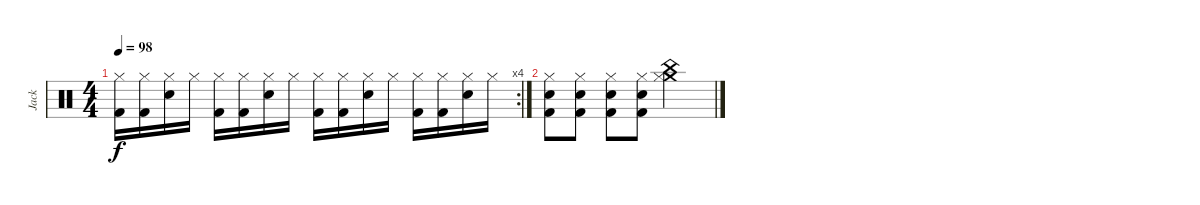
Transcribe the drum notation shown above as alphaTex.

\track ("Jack" "Jack") {instrument percussion}
\staff {score}
\articulation defaults
\rc 4
\ts (4 4)
\tempo 98
\clef neutral
\ks c
("Hi-Hat (closed)" "Kick (hit) 2").16{dy f} ("Hi-Hat (closed)" "Kick (hit) 2").16 ("Hi-Hat (closed)" "Snare (hit) 2").16 "Hi-Hat (closed)".16 ("Hi-Hat (closed)" "Kick (hit) 2").16 ("Hi-Hat (closed)" "Kick (hit) 2").16 ("Hi-Hat (closed)" "Snare (hit) 2").16 "Hi-Hat (closed)".16 ("Hi-Hat (closed)" "Kick (hit) 2").16 ("Hi-Hat (closed)" "Kick (hit) 2").16 ("Hi-Hat (closed)" "Snare (hit) 2").16 "Hi-Hat (closed)".16 ("Hi-Hat (closed)" "Kick (hit) 2").16 ("Hi-Hat (closed)" "Kick (hit) 2").16 ("Hi-Hat (closed)" "Snare (hit) 2").16 "Hi-Hat (closed)".16 |
("Hi-Hat (closed)" "Snare (hit) 2" "Kick (hit) 2").8 ("Hi-Hat (closed)" "Snare (hit) 2" "Kick (hit) 2").8 ("Hi-Hat (closed)" "Snare (hit) 2" "Kick (hit) 2").8 ("Hi-Hat (closed)" "Snare (hit) 2" "Kick (hit) 2").8 ("Crash medium (hit)" "China (hit)" "Hi-Hat (closed)").2
